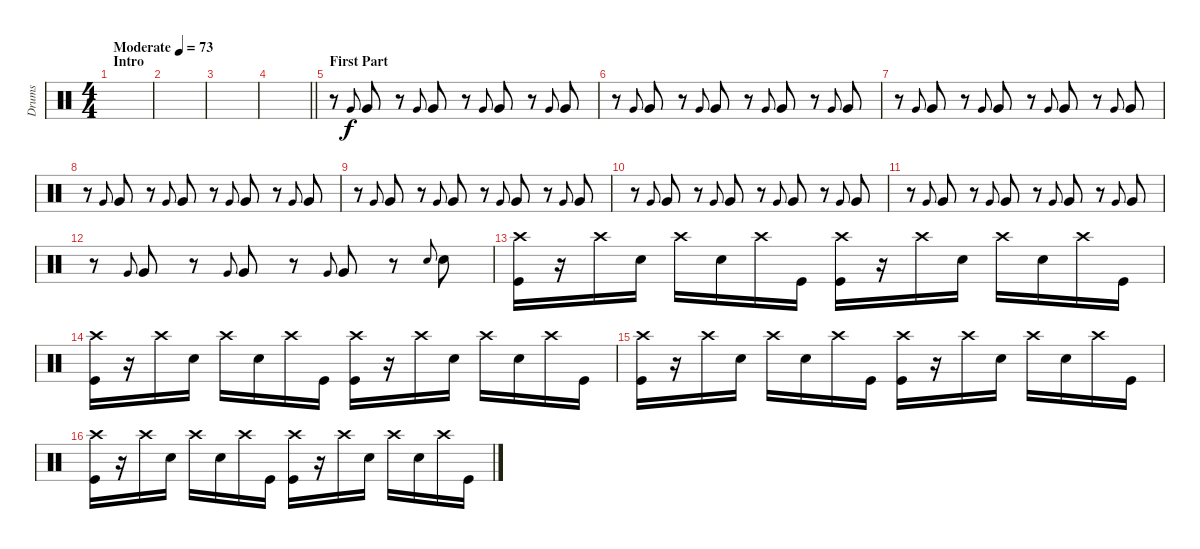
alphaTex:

\track ("Drums" "Drums") {instrument percussion}
\staff {score}
\articulation defaults
\ts (4 4)
\section ("" "Intro")
\tempo (73 "Moderate")
\clef neutral
\ks c
|
|
|
\barLineRight lightlight
|
\section ("" "First Part")
r.8 "Very Low Tom (hit)".8{gr onbeat} "Very Low Tom (hit)".8 r.8 "Very Low Tom (hit)".8{gr onbeat} "Very Low Tom (hit)".8 r.8 "Very Low Tom (hit)".8{gr onbeat} "Very Low Tom (hit)".8 r.8 "Very Low Tom (hit)".8{gr onbeat} "Very Low Tom (hit)".8 |
r.8 "Very Low Tom (hit)".8{gr onbeat} "Very Low Tom (hit)".8 r.8 "Very Low Tom (hit)".8{gr onbeat} "Very Low Tom (hit)".8 r.8 "Very Low Tom (hit)".8{gr onbeat} "Very Low Tom (hit)".8 r.8 "Very Low Tom (hit)".8{gr onbeat} "Very Low Tom (hit)".8 |
r.8 "Very Low Tom (hit)".8{gr onbeat} "Very Low Tom (hit)".8 r.8 "Very Low Tom (hit)".8{gr onbeat} "Very Low Tom (hit)".8 r.8 "Very Low Tom (hit)".8{gr onbeat} "Very Low Tom (hit)".8 r.8 "Very Low Tom (hit)".8{gr onbeat} "Very Low Tom (hit)".8 |
r.8 "Very Low Tom (hit)".8{gr onbeat} "Very Low Tom (hit)".8 r.8 "Very Low Tom (hit)".8{gr onbeat} "Very Low Tom (hit)".8 r.8 "Very Low Tom (hit)".8{gr onbeat} "Very Low Tom (hit)".8 r.8 "Very Low Tom (hit)".8{gr onbeat} "Very Low Tom (hit)".8 |
r.8 "Very Low Tom (hit)".8{gr onbeat} "Very Low Tom (hit)".8 r.8 "Very Low Tom (hit)".8{gr onbeat} "Very Low Tom (hit)".8 r.8 "Very Low Tom (hit)".8{gr onbeat} "Very Low Tom (hit)".8 r.8 "Very Low Tom (hit)".8{gr onbeat} "Very Low Tom (hit)".8 |
r.8 "Very Low Tom (hit)".8{gr onbeat} "Very Low Tom (hit)".8 r.8 "Very Low Tom (hit)".8{gr onbeat} "Very Low Tom (hit)".8 r.8 "Very Low Tom (hit)".8{gr onbeat} "Very Low Tom (hit)".8 r.8 "Very Low Tom (hit)".8{gr onbeat} "Very Low Tom (hit)".8 |
r.8 "Very Low Tom (hit)".8{gr onbeat} "Very Low Tom (hit)".8 r.8 "Very Low Tom (hit)".8{gr onbeat} "Very Low Tom (hit)".8 r.8 "Very Low Tom (hit)".8{gr onbeat} "Very Low Tom (hit)".8 r.8 "Very Low Tom (hit)".8{gr onbeat} "Very Low Tom (hit)".8 |
r.8 "Very Low Tom (hit)".8{gr onbeat} "Very Low Tom (hit)".8 r.8 "Very Low Tom (hit)".8{gr onbeat} "Very Low Tom (hit)".8 r.8 "Very Low Tom (hit)".8{gr onbeat} "Very Low Tom (hit)".8 r.8 "Snare (hit) 2".8{gr onbeat} "Snare (hit) 2".8 |
("Crash high (hit)" "Kick (hit)").16 r.16 "Crash high (hit)".16 "Snare (hit) 2".16 "Crash high (hit)".16 "Snare (hit) 2".16 "Crash high (hit)".16 "Kick (hit)".16 ("Crash high (hit)" "Kick (hit)").16 r.16 "Crash high (hit)".16 "Snare (hit) 2".16 "Crash high (hit)".16 "Snare (hit) 2".16 "Crash high (hit)".16 "Kick (hit)".16 |
("Crash high (hit)" "Kick (hit)").16 r.16 "Crash high (hit)".16 "Snare (hit) 2".16 "Crash high (hit)".16 "Snare (hit) 2".16 "Crash high (hit)".16 "Kick (hit)".16 ("Crash high (hit)" "Kick (hit)").16 r.16 "Crash high (hit)".16 "Snare (hit) 2".16 "Crash high (hit)".16 "Snare (hit) 2".16 "Crash high (hit)".16 "Kick (hit)".16 |
("Crash high (hit)" "Kick (hit)").16 r.16 "Crash high (hit)".16 "Snare (hit) 2".16 "Crash high (hit)".16 "Snare (hit) 2".16 "Crash high (hit)".16 "Kick (hit)".16 ("Crash high (hit)" "Kick (hit)").16 r.16 "Crash high (hit)".16 "Snare (hit) 2".16 "Crash high (hit)".16 "Snare (hit) 2".16 "Crash high (hit)".16 "Kick (hit)".16 |
("Crash high (hit)" "Kick (hit)").16 r.16 "Crash high (hit)".16 "Snare (hit) 2".16 "Crash high (hit)".16 "Snare (hit) 2".16 "Crash high (hit)".16 "Kick (hit)".16 ("Crash high (hit)" "Kick (hit)").16 r.16 "Crash high (hit)".16 "Snare (hit) 2".16 "Crash high (hit)".16 "Snare (hit) 2".16 "Crash high (hit)".16 "Kick (hit)".16
